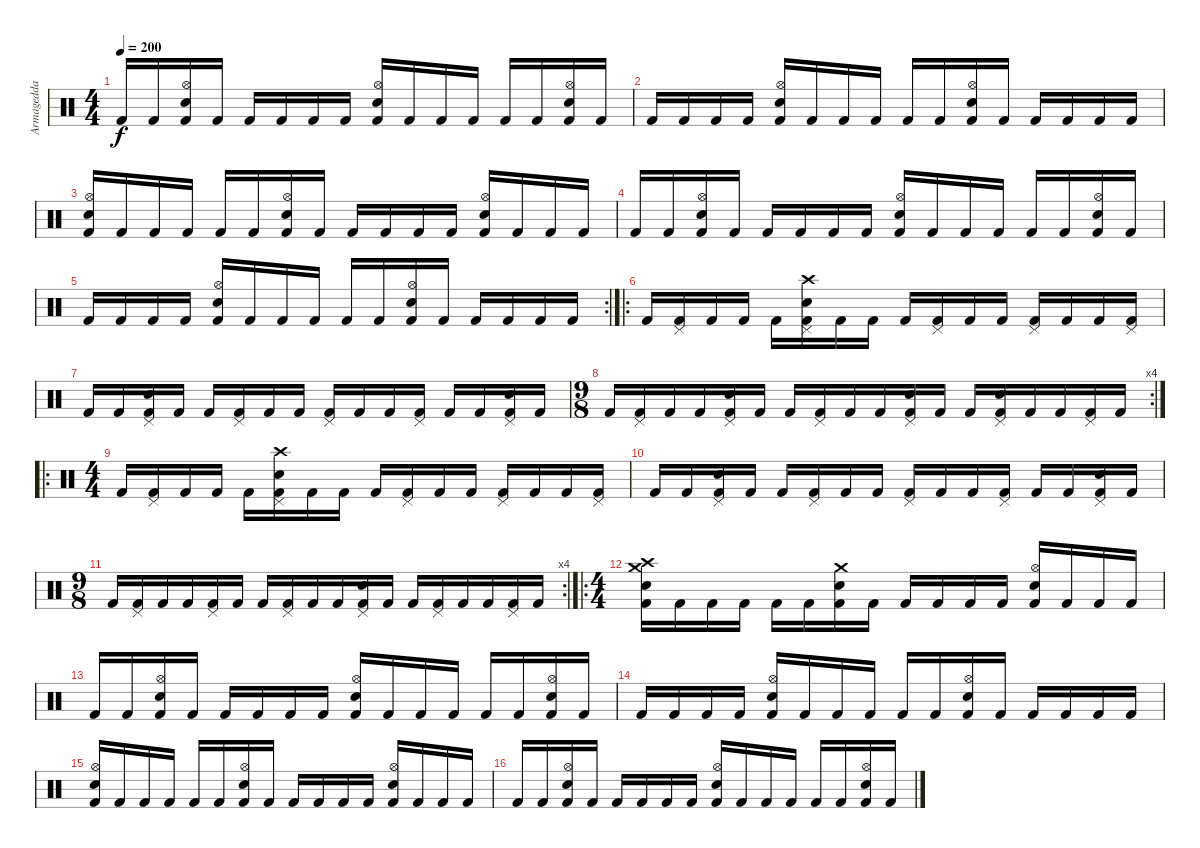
\track ("Armagedda" "Armagedda") {instrument percussion}
\staff {score}
\articulation defaults
\ts (4 4)
\tempo 200
\clef neutral
\ks c "Kick (hit) 2".16{dy f} "Kick (hit) 2".16
("Hi-Hat (open)" "Electric Snare (hit)" "Kick (hit) 2").16 "Kick (hit) 2".16 "Kick (hit) 2".16 "Kick (hit) 2".16 "Kick (hit) 2".16 "Kick (hit) 2".16 ("Hi-Hat (open)" "Electric Snare (hit)" "Kick (hit) 2").16 "Kick (hit) 2".16 "Kick (hit) 2".16 "Kick (hit) 2".16 "Kick (hit) 2".16 "Kick (hit) 2".16 ("Hi-Hat (open)" "Electric Snare (hit)" "Kick (hit) 2").16 "Kick (hit) 2".16 |
"Kick (hit) 2".16 "Kick (hit) 2".16 "Kick (hit) 2".16 "Kick (hit) 2".16 ("Hi-Hat (open)" "Electric Snare (hit)" "Kick (hit) 2").16 "Kick (hit) 2".16 "Kick (hit) 2".16 "Kick (hit) 2".16 "Kick (hit) 2".16 "Kick (hit) 2".16 ("Hi-Hat (open)" "Electric Snare (hit)" "Kick (hit) 2").16 "Kick (hit) 2".16 "Kick (hit) 2".16 "Kick (hit) 2".16 "Kick (hit) 2".16 "Kick (hit) 2".16 |
("Hi-Hat (open)" "Electric Snare (hit)" "Kick (hit) 2").16 "Kick (hit) 2".16 "Kick (hit) 2".16 "Kick (hit) 2".16 "Kick (hit) 2".16 "Kick (hit) 2".16 ("Hi-Hat (open)" "Electric Snare (hit)" "Kick (hit) 2").16 "Kick (hit) 2".16 "Kick (hit) 2".16 "Kick (hit) 2".16 "Kick (hit) 2".16 "Kick (hit) 2".16 ("Hi-Hat (open)" "Electric Snare (hit)" "Kick (hit) 2").16 "Kick (hit) 2".16 "Kick (hit) 2".16 "Kick (hit) 2".16 |
"Kick (hit) 2".16 "Kick (hit) 2".16 ("Hi-Hat (open)" "Electric Snare (hit)" "Kick (hit) 2").16 "Kick (hit) 2".16 "Kick (hit) 2".16 "Kick (hit) 2".16 "Kick (hit) 2".16 "Kick (hit) 2".16 ("Hi-Hat (open)" "Electric Snare (hit)" "Kick (hit) 2").16 "Kick (hit) 2".16 "Kick (hit) 2".16 "Kick (hit) 2".16 "Kick (hit) 2".16 "Kick (hit) 2".16 ("Hi-Hat (open)" "Electric Snare (hit)" "Kick (hit) 2").16 "Kick (hit) 2".16 |
\rc 2 "Kick (hit) 2".16 "Kick (hit) 2".16 "Kick (hit) 2".16 "Kick (hit) 2".16
("Hi-Hat (open)" "Electric Snare (hit)" "Kick (hit) 2").16 "Kick (hit) 2".16 "Kick (hit) 2".16 "Kick (hit) 2".16 "Kick (hit) 2".16 "Kick (hit) 2".16 ("Hi-Hat (open)" "Electric Snare (hit)" "Kick (hit) 2").16 "Kick (hit) 2".16 "Kick (hit) 2".16 "Kick (hit) 2".16 "Kick (hit) 2".16 "Kick (hit) 2".16 |
\ro "Kick (hit) 2".16
("Pedal Hi-Hat (hit)" "Kick (hit) 2").16 "Kick (hit) 2".16 "Kick (hit) 2".16 "Kick (hit) 2".16 ("Crash high (hit)" "Pedal Hi-Hat (hit)" "Electric Snare (hit)" "Kick (hit) 2").16 "Kick (hit) 2".16 "Kick (hit) 2".16 "Kick (hit) 2".16 ("Pedal Hi-Hat (hit)" "Kick (hit) 2").16 "Kick (hit) 2".16 "Kick (hit) 2".16 ("Pedal Hi-Hat (hit)" "Kick (hit) 2").16 "Kick (hit) 2".16 "Kick (hit) 2".16 ("Pedal Hi-Hat (hit)" "Kick (hit) 2").16 |
"Kick (hit) 2".16 "Kick (hit) 2".16 ("Pedal Hi-Hat (hit)" "Electric Snare (hit)" "Kick (hit) 2").16 "Kick (hit) 2".16 "Kick (hit) 2".16 ("Pedal Hi-Hat (hit)" "Kick (hit) 2").16 "Kick (hit) 2".16 "Kick (hit) 2".16 ("Pedal Hi-Hat (hit)" "Kick (hit) 2").16 "Kick (hit) 2".16 "Kick (hit) 2".16 ("Pedal Hi-Hat (hit)" "Kick (hit) 2").16 "Kick (hit) 2".16 "Kick (hit) 2".16 ("Pedal Hi-Hat (hit)" "Electric Snare (hit)" "Kick (hit) 2").16 "Kick (hit) 2".16 |
\rc 4
\ts (9 8)
"Kick (hit) 2".16 ("Pedal Hi-Hat (hit)" "Kick (hit) 2").16 "Kick (hit) 2".16 "Kick (hit) 2".16 ("Pedal Hi-Hat (hit)" "Electric Snare (hit)" "Kick (hit) 2").16 "Kick (hit) 2".16 "Kick (hit) 2".16 ("Pedal Hi-Hat (hit)" "Kick (hit) 2").16 "Kick (hit) 2".16 "Kick (hit) 2".16 ("Pedal Hi-Hat (hit)" "Electric Snare (hit)" "Kick (hit) 2").16 "Kick (hit) 2".16 "Kick (hit) 2".16 ("Pedal Hi-Hat (hit)" "Electric Snare (hit)" "Kick (hit) 2").16 "Kick (hit) 2".16 "Kick (hit) 2".16 ("Pedal Hi-Hat (hit)" "Kick (hit) 2").16 "Kick (hit) 2".16 |
\ro
\ts (4 4)
"Kick (hit) 2".16 ("Pedal Hi-Hat (hit)" "Kick (hit) 2").16 "Kick (hit) 2".16 "Kick (hit) 2".16 "Kick (hit) 2".16 ("Crash high (hit)" "Pedal Hi-Hat (hit)" "Electric Snare (hit)" "Kick (hit) 2").16 "Kick (hit) 2".16 "Kick (hit) 2".16 "Kick (hit) 2".16 ("Pedal Hi-Hat (hit)" "Kick (hit) 2").16 "Kick (hit) 2".16 "Kick (hit) 2".16 ("Pedal Hi-Hat (hit)" "Kick (hit) 2").16 "Kick (hit) 2".16 "Kick (hit) 2".16 ("Pedal Hi-Hat (hit)" "Kick (hit) 2").16 |
"Kick (hit) 2".16 "Kick (hit) 2".16 ("Pedal Hi-Hat (hit)" "Electric Snare (hit)" "Kick (hit) 2").16 "Kick (hit) 2".16 "Kick (hit) 2".16 ("Pedal Hi-Hat (hit)" "Kick (hit) 2").16 "Kick (hit) 2".16 "Kick (hit) 2".16 ("Pedal Hi-Hat (hit)" "Kick (hit) 2").16 "Kick (hit) 2".16 "Kick (hit) 2".16 ("Pedal Hi-Hat (hit)" "Kick (hit) 2").16 "Kick (hit) 2".16 "Kick (hit) 2".16 ("Pedal Hi-Hat (hit)" "Electric Snare (hit)" "Kick (hit) 2").16 "Kick (hit) 2".16 |
\rc 4
\ts (9 8)
"Kick (hit) 2".16 ("Pedal Hi-Hat (hit)" "Kick (hit) 2").16 "Kick (hit) 2".16 "Kick (hit) 2".16 ("Pedal Hi-Hat (hit)" "Kick (hit) 2").16 "Kick (hit) 2".16 "Kick (hit) 2".16 ("Pedal Hi-Hat (hit)" "Kick (hit) 2").16 "Kick (hit) 2".16 "Kick (hit) 2".16 ("Pedal Hi-Hat (hit)" "Electric Snare (hit)" "Kick (hit) 2").16 "Kick (hit) 2".16 "Kick (hit) 2".16 ("Pedal Hi-Hat (hit)" "Kick (hit) 2").16 "Kick (hit) 2".16 "Kick (hit) 2".16 ("Pedal Hi-Hat (hit)" "Kick (hit) 2").16 "Kick (hit) 2".16 |
\ro
\ts (4 4)
("Crash high (hit)" "Crash medium (hit)" "Electric Snare (hit)" "Kick (hit) 2").16 "Kick (hit) 2".16 "Kick (hit) 2".16 "Kick (hit) 2".16 "Kick (hit) 2".16 "Kick (hit) 2".16 ("Crash medium (hit)" "Electric Snare (hit)" "Kick (hit) 2").16 "Kick (hit) 2".16 "Kick (hit) 2".16 "Kick (hit) 2".16 "Kick (hit) 2".16 "Kick (hit) 2".16 ("Hi-Hat (open)" "Electric Snare (hit)" "Kick (hit) 2").16 "Kick (hit) 2".16 "Kick (hit) 2".16 "Kick (hit) 2".16 |
"Kick (hit) 2".16 "Kick (hit) 2".16 ("Hi-Hat (open)" "Electric Snare (hit)" "Kick (hit) 2").16 "Kick (hit) 2".16 "Kick (hit) 2".16 "Kick (hit) 2".16 "Kick (hit) 2".16 "Kick (hit) 2".16 ("Hi-Hat (open)" "Electric Snare (hit)" "Kick (hit) 2").16 "Kick (hit) 2".16 "Kick (hit) 2".16 "Kick (hit) 2".16 "Kick (hit) 2".16 "Kick (hit) 2".16 ("Hi-Hat (open)" "Electric Snare (hit)" "Kick (hit) 2").16 "Kick (hit) 2".16 |
"Kick (hit) 2".16 "Kick (hit) 2".16 "Kick (hit) 2".16 "Kick (hit) 2".16 ("Hi-Hat (open)" "Electric Snare (hit)" "Kick (hit) 2").16 "Kick (hit) 2".16 "Kick (hit) 2".16 "Kick (hit) 2".16 "Kick (hit) 2".16 "Kick (hit) 2".16 ("Hi-Hat (open)" "Electric Snare (hit)" "Kick (hit) 2").16 "Kick (hit) 2".16 "Kick (hit) 2".16 "Kick (hit) 2".16 "Kick (hit) 2".16 "Kick (hit) 2".16 |
("Hi-Hat (open)" "Electric Snare (hit)" "Kick (hit) 2").16 "Kick (hit) 2".16 "Kick (hit) 2".16 "Kick (hit) 2".16 "Kick (hit) 2".16 "Kick (hit) 2".16 ("Hi-Hat (open)" "Electric Snare (hit)" "Kick (hit) 2").16 "Kick (hit) 2".16 "Kick (hit) 2".16 "Kick (hit) 2".16 "Kick (hit) 2".16 "Kick (hit) 2".16 ("Hi-Hat (open)" "Electric Snare (hit)" "Kick (hit) 2").16 "Kick (hit) 2".16 "Kick (hit) 2".16 "Kick (hit) 2".16 |
"Kick (hit) 2".16 "Kick (hit) 2".16 ("Hi-Hat (open)" "Electric Snare (hit)" "Kick (hit) 2").16 "Kick (hit) 2".16 "Kick (hit) 2".16 "Kick (hit) 2".16 "Kick (hit) 2".16 "Kick (hit) 2".16 ("Hi-Hat (open)" "Electric Snare (hit)" "Kick (hit) 2").16 "Kick (hit) 2".16 "Kick (hit) 2".16 "Kick (hit) 2".16 "Kick (hit) 2".16 "Kick (hit) 2".16 ("Hi-Hat (open)" "Electric Snare (hit)" "Kick (hit) 2").16 "Kick (hit) 2".16
